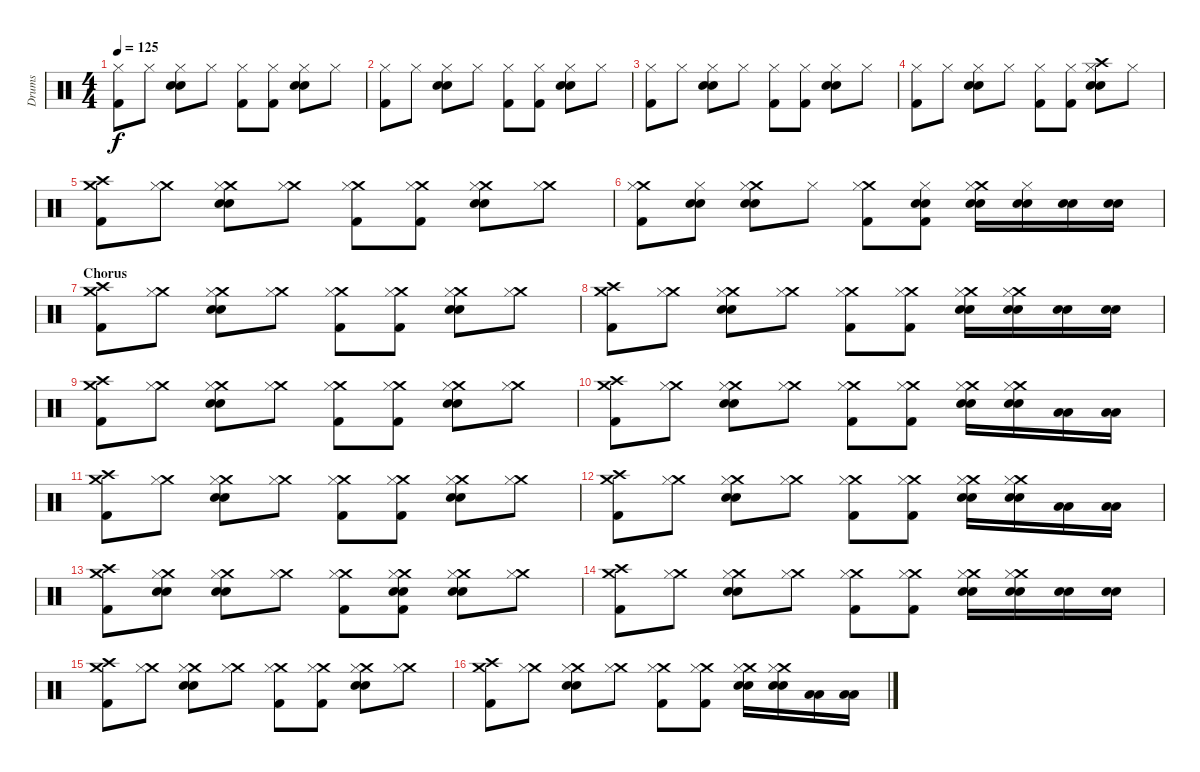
\track ("Drums" "Drums") {instrument percussion}
\staff {score}
\articulation defaults
\ts (4 4)
\tempo 125
\clef neutral
\ks c
("Hi-Hat (closed)" "Kick (hit) 2").8{dy f} "Hi-Hat (closed)".8 ("Hi-Hat (closed)" "Snare (hit) 2" "Snare (hit) 2").8 "Hi-Hat (closed)".8 ("Hi-Hat (closed)" "Kick (hit) 2").8 ("Hi-Hat (closed)" "Kick (hit) 2").8 ("Hi-Hat (closed)" "Snare (hit) 2" "Snare (hit) 2").8 "Hi-Hat (closed)".8 |
("Hi-Hat (closed)" "Kick (hit) 2").8 "Hi-Hat (closed)".8 ("Hi-Hat (closed)" "Snare (hit) 2" "Snare (hit) 2").8 "Hi-Hat (closed)".8 ("Hi-Hat (closed)" "Kick (hit) 2").8 ("Hi-Hat (closed)" "Kick (hit) 2").8 ("Hi-Hat (closed)" "Snare (hit) 2" "Snare (hit) 2").8 "Hi-Hat (closed)".8 |
("Hi-Hat (closed)" "Kick (hit) 2").8 "Hi-Hat (closed)".8 ("Hi-Hat (closed)" "Snare (hit) 2" "Snare (hit) 2").8 "Hi-Hat (closed)".8 ("Hi-Hat (closed)" "Kick (hit) 2").8 ("Hi-Hat (closed)" "Kick (hit) 2").8 ("Hi-Hat (closed)" "Snare (hit) 2" "Snare (hit) 2").8 "Hi-Hat (closed)".8 |
("Hi-Hat (closed)" "Kick (hit) 2").8 "Hi-Hat (closed)".8 ("Hi-Hat (closed)" "Snare (hit) 2" "Snare (hit) 2").8 "Hi-Hat (closed)".8 ("Hi-Hat (closed)" "Kick (hit) 2").8 ("Hi-Hat (closed)" "Kick (hit) 2").8 ("Crash high (hit)" "Hi-Hat (closed)" "Snare (hit) 2" "Snare (hit) 2").8 "Hi-Hat (closed)".8 |
("Crash medium (hit)" "Crash high (hit)" "Kick (hit) 2").8 ("Crash medium (hit)" "Hi-Hat (closed)").8 ("Crash medium (hit)" "Hi-Hat (closed)" "Snare (hit) 2" "Snare (hit) 2").8 ("Crash medium (hit)" "Hi-Hat (closed)").8 ("Crash medium (hit)" "Hi-Hat (closed)" "Kick (hit) 2").8 ("Crash medium (hit)" "Hi-Hat (closed)" "Kick (hit) 2").8 ("Crash medium (hit)" "Hi-Hat (closed)" "Snare (hit) 2" "Snare (hit) 2").8 ("Crash medium (hit)" "Hi-Hat (closed)").8 |
("Crash medium (hit)" "Hi-Hat (closed)" "Kick (hit) 2").8 ("Hi-Hat (closed)" "Snare (hit) 2" "Snare (hit) 2").8 ("Crash medium (hit)" "Hi-Hat (closed)" "Snare (hit) 2" "Snare (hit) 2").8 "Hi-Hat (closed)".8 ("Crash medium (hit)" "Hi-Hat (closed)" "Kick (hit) 2").8 ("Hi-Hat (closed)" "Snare (hit) 2" "Snare (hit) 2" "Kick (hit) 2").8 ("Crash medium (hit)" "Hi-Hat (closed)" "Snare (hit) 2" "Snare (hit) 2").16 ("Hi-Hat (closed)" "Snare (hit) 2" "Snare (hit) 2").16 ("Snare (hit) 2" "Snare (hit) 2").16 ("Snare (hit) 2" "Snare (hit) 2").16 |
\section ("" "Chorus")
("Crash medium (hit)" "Crash high (hit)" "Kick (hit) 2").8 ("Crash medium (hit)" "Hi-Hat (closed)").8 ("Crash medium (hit)" "Hi-Hat (closed)" "Snare (hit) 2" "Snare (hit) 2").8 ("Crash medium (hit)" "Hi-Hat (closed)").8 ("Crash medium (hit)" "Hi-Hat (closed)" "Kick (hit) 2").8 ("Crash medium (hit)" "Hi-Hat (closed)" "Kick (hit) 2").8 ("Crash medium (hit)" "Hi-Hat (closed)" "Snare (hit) 2" "Snare (hit) 2").8 ("Crash medium (hit)" "Hi-Hat (closed)").8 |
("Crash medium (hit)" "Crash high (hit)" "Kick (hit) 2").8 ("Crash medium (hit)" "Hi-Hat (closed)").8 ("Crash medium (hit)" "Hi-Hat (closed)" "Snare (hit) 2" "Snare (hit) 2").8 ("Crash medium (hit)" "Hi-Hat (closed)").8 ("Crash medium (hit)" "Hi-Hat (closed)" "Kick (hit) 2").8 ("Crash medium (hit)" "Hi-Hat (closed)" "Kick (hit) 2").8 ("Crash medium (hit)" "Hi-Hat (closed)" "Snare (hit) 2" "Snare (hit) 2").16 ("Crash medium (hit)" "Hi-Hat (closed)" "Snare (hit) 2" "Snare (hit) 2").16 ("Snare (hit) 2" "Snare (hit) 2").16 ("Snare (hit) 2" "Snare (hit) 2").16 |
("Crash medium (hit)" "Crash high (hit)" "Kick (hit) 2").8 ("Crash medium (hit)" "Hi-Hat (closed)").8 ("Crash medium (hit)" "Hi-Hat (closed)" "Snare (hit) 2" "Snare (hit) 2").8 ("Crash medium (hit)" "Hi-Hat (closed)").8 ("Crash medium (hit)" "Hi-Hat (closed)" "Kick (hit) 2").8 ("Crash medium (hit)" "Hi-Hat (closed)" "Kick (hit) 2").8 ("Crash medium (hit)" "Hi-Hat (closed)" "Snare (hit) 2" "Snare (hit) 2").8 ("Crash medium (hit)" "Hi-Hat (closed)").8 |
("Crash medium (hit)" "Crash high (hit)" "Kick (hit) 2").8 ("Crash medium (hit)" "Hi-Hat (closed)").8 ("Crash medium (hit)" "Hi-Hat (closed)" "Snare (hit) 2" "Snare (hit) 2").8 ("Crash medium (hit)" "Hi-Hat (closed)").8 ("Crash medium (hit)" "Hi-Hat (closed)" "Kick (hit) 2").8 ("Crash medium (hit)" "Hi-Hat (closed)" "Kick (hit) 2").8 ("Crash medium (hit)" "Hi-Hat (closed)" "Snare (hit) 2" "Snare (hit) 2").16 ("Crash medium (hit)" "Hi-Hat (closed)" "Snare (hit) 2" "Snare (hit) 2").16 ("Low Floor Tom (hit)" "Low Floor Tom (hit)").16 ("Low Floor Tom (hit)" "Low Floor Tom (hit)").16 |
("Crash medium (hit)" "Crash high (hit)" "Kick (hit) 2").8 ("Crash medium (hit)" "Hi-Hat (closed)").8 ("Crash medium (hit)" "Hi-Hat (closed)" "Snare (hit) 2" "Snare (hit) 2").8 ("Crash medium (hit)" "Hi-Hat (closed)").8 ("Crash medium (hit)" "Hi-Hat (closed)" "Kick (hit) 2").8 ("Crash medium (hit)" "Hi-Hat (closed)" "Kick (hit) 2").8 ("Crash medium (hit)" "Hi-Hat (closed)" "Snare (hit) 2" "Snare (hit) 2").8 ("Crash medium (hit)" "Hi-Hat (closed)").8 |
("Crash medium (hit)" "Crash high (hit)" "Kick (hit) 2").8 ("Crash medium (hit)" "Hi-Hat (closed)").8 ("Crash medium (hit)" "Hi-Hat (closed)" "Snare (hit) 2" "Snare (hit) 2").8 ("Crash medium (hit)" "Hi-Hat (closed)").8 ("Crash medium (hit)" "Hi-Hat (closed)" "Kick (hit) 2").8 ("Crash medium (hit)" "Hi-Hat (closed)" "Kick (hit) 2").8 ("Crash medium (hit)" "Hi-Hat (closed)" "Snare (hit) 2" "Snare (hit) 2").16 ("Crash medium (hit)" "Hi-Hat (closed)" "Snare (hit) 2" "Snare (hit) 2").16 ("Low Floor Tom (hit)" "Low Floor Tom (hit)").16 ("Low Floor Tom (hit)" "Low Floor Tom (hit)").16 |
("Crash medium (hit)" "Crash high (hit)" "Kick (hit) 2").8 ("Crash medium (hit)" "Hi-Hat (closed)" "Snare (hit) 2" "Snare (hit) 2").8 ("Crash medium (hit)" "Hi-Hat (closed)" "Snare (hit) 2" "Snare (hit) 2").8 ("Crash medium (hit)" "Hi-Hat (closed)").8 ("Crash medium (hit)" "Hi-Hat (closed)" "Kick (hit) 2").8 ("Crash medium (hit)" "Hi-Hat (closed)" "Snare (hit) 2" "Snare (hit) 2" "Kick (hit) 2").8 ("Crash medium (hit)" "Hi-Hat (closed)" "Snare (hit) 2" "Snare (hit) 2").8 ("Crash medium (hit)" "Hi-Hat (closed)").8 |
("Crash medium (hit)" "Crash high (hit)" "Kick (hit) 2").8 ("Crash medium (hit)" "Hi-Hat (closed)").8 ("Crash medium (hit)" "Hi-Hat (closed)" "Snare (hit) 2" "Snare (hit) 2").8 ("Crash medium (hit)" "Hi-Hat (closed)").8 ("Crash medium (hit)" "Hi-Hat (closed)" "Kick (hit) 2").8 ("Crash medium (hit)" "Hi-Hat (closed)" "Kick (hit) 2").8 ("Crash medium (hit)" "Hi-Hat (closed)" "Snare (hit) 2" "Snare (hit) 2").16 ("Crash medium (hit)" "Hi-Hat (closed)" "Snare (hit) 2" "Snare (hit) 2").16 ("Snare (hit) 2" "Snare (hit) 2").16 ("Snare (hit) 2" "Snare (hit) 2").16 |
("Crash medium (hit)" "Crash high (hit)" "Kick (hit) 2").8 ("Crash medium (hit)" "Hi-Hat (closed)").8 ("Crash medium (hit)" "Hi-Hat (closed)" "Snare (hit) 2" "Snare (hit) 2").8 ("Crash medium (hit)" "Hi-Hat (closed)").8 ("Crash medium (hit)" "Hi-Hat (closed)" "Kick (hit) 2").8 ("Crash medium (hit)" "Hi-Hat (closed)" "Kick (hit) 2").8 ("Crash medium (hit)" "Hi-Hat (closed)" "Snare (hit) 2" "Snare (hit) 2").8 ("Crash medium (hit)" "Hi-Hat (closed)").8 |
("Crash medium (hit)" "Crash high (hit)" "Kick (hit) 2").8 ("Crash medium (hit)" "Hi-Hat (closed)").8 ("Crash medium (hit)" "Hi-Hat (closed)" "Snare (hit) 2" "Snare (hit) 2").8 ("Crash medium (hit)" "Hi-Hat (closed)").8 ("Crash medium (hit)" "Hi-Hat (closed)" "Kick (hit) 2").8 ("Crash medium (hit)" "Hi-Hat (closed)" "Kick (hit) 2").8 ("Crash medium (hit)" "Hi-Hat (closed)" "Snare (hit) 2" "Snare (hit) 2").16 ("Crash medium (hit)" "Hi-Hat (closed)" "Snare (hit) 2" "Snare (hit) 2").16 ("Low Floor Tom (hit)" "Low Floor Tom (hit)").16 ("Low Floor Tom (hit)" "Low Floor Tom (hit)").16
